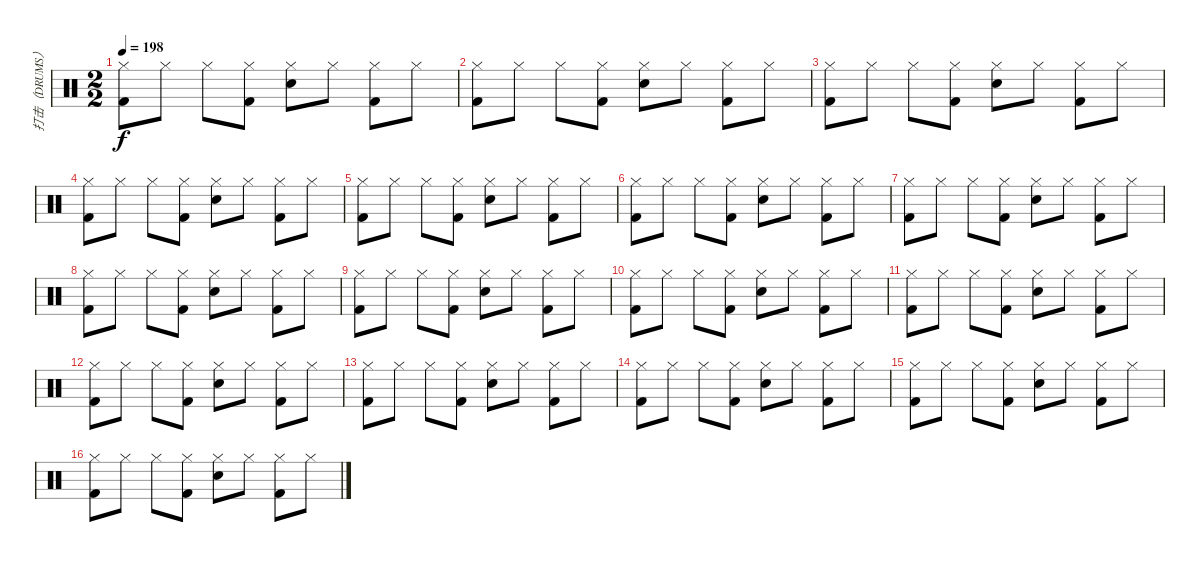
\track ("打击（DRUMS）" "打击（DRUMS）") {instrument percussion}
\staff {score}
\articulation defaults
\ts (2 2)
\tempo 198
\clef neutral
\ks c
("Kick (hit) 2" "Hi-Hat (closed)").8{dy f} "Hi-Hat (closed)".8 "Hi-Hat (closed)".8 ("Kick (hit) 2" "Hi-Hat (closed)").8 ("Electric Snare (hit)" "Hi-Hat (closed)").8 "Hi-Hat (closed)".8 ("Kick (hit) 2" "Hi-Hat (closed)").8 "Hi-Hat (closed)".8 |
("Kick (hit) 2" "Hi-Hat (closed)").8 "Hi-Hat (closed)".8 "Hi-Hat (closed)".8 ("Kick (hit) 2" "Hi-Hat (closed)").8 ("Electric Snare (hit)" "Hi-Hat (closed)").8 "Hi-Hat (closed)".8 ("Kick (hit) 2" "Hi-Hat (closed)").8 "Hi-Hat (closed)".8 |
("Kick (hit) 2" "Hi-Hat (closed)").8 "Hi-Hat (closed)".8 "Hi-Hat (closed)".8 ("Kick (hit) 2" "Hi-Hat (closed)").8 ("Electric Snare (hit)" "Hi-Hat (closed)").8 "Hi-Hat (closed)".8 ("Kick (hit) 2" "Hi-Hat (closed)").8 "Hi-Hat (closed)".8 |
("Kick (hit) 2" "Hi-Hat (closed)").8 "Hi-Hat (closed)".8 "Hi-Hat (closed)".8 ("Kick (hit) 2" "Hi-Hat (closed)").8 ("Electric Snare (hit)" "Hi-Hat (closed)").8 "Hi-Hat (closed)".8 ("Kick (hit) 2" "Hi-Hat (closed)").8 "Hi-Hat (closed)".8 |
("Kick (hit) 2" "Hi-Hat (closed)").8 "Hi-Hat (closed)".8 "Hi-Hat (closed)".8 ("Kick (hit) 2" "Hi-Hat (closed)").8 ("Electric Snare (hit)" "Hi-Hat (closed)").8 "Hi-Hat (closed)".8 ("Kick (hit) 2" "Hi-Hat (closed)").8 "Hi-Hat (closed)".8 |
("Kick (hit) 2" "Hi-Hat (closed)").8 "Hi-Hat (closed)".8 "Hi-Hat (closed)".8 ("Kick (hit) 2" "Hi-Hat (closed)").8 ("Electric Snare (hit)" "Hi-Hat (closed)").8 "Hi-Hat (closed)".8 ("Kick (hit) 2" "Hi-Hat (closed)").8 "Hi-Hat (closed)".8 |
("Kick (hit) 2" "Hi-Hat (closed)").8 "Hi-Hat (closed)".8 "Hi-Hat (closed)".8 ("Kick (hit) 2" "Hi-Hat (closed)").8 ("Electric Snare (hit)" "Hi-Hat (closed)").8 "Hi-Hat (closed)".8 ("Kick (hit) 2" "Hi-Hat (closed)").8 "Hi-Hat (closed)".8 |
("Kick (hit) 2" "Hi-Hat (closed)").8 "Hi-Hat (closed)".8 "Hi-Hat (closed)".8 ("Kick (hit) 2" "Hi-Hat (closed)").8 ("Electric Snare (hit)" "Hi-Hat (closed)").8 "Hi-Hat (closed)".8 ("Kick (hit) 2" "Hi-Hat (closed)").8 "Hi-Hat (closed)".8 |
("Kick (hit) 2" "Hi-Hat (closed)").8 "Hi-Hat (closed)".8 "Hi-Hat (closed)".8 ("Kick (hit) 2" "Hi-Hat (closed)").8 ("Electric Snare (hit)" "Hi-Hat (closed)").8 "Hi-Hat (closed)".8 ("Kick (hit) 2" "Hi-Hat (closed)").8 "Hi-Hat (closed)".8 |
("Kick (hit) 2" "Hi-Hat (closed)").8 "Hi-Hat (closed)".8 "Hi-Hat (closed)".8 ("Kick (hit) 2" "Hi-Hat (closed)").8 ("Electric Snare (hit)" "Hi-Hat (closed)").8 "Hi-Hat (closed)".8 ("Kick (hit) 2" "Hi-Hat (closed)").8 "Hi-Hat (closed)".8 |
("Kick (hit) 2" "Hi-Hat (closed)").8 "Hi-Hat (closed)".8 "Hi-Hat (closed)".8 ("Kick (hit) 2" "Hi-Hat (closed)").8 ("Electric Snare (hit)" "Hi-Hat (closed)").8 "Hi-Hat (closed)".8 ("Kick (hit) 2" "Hi-Hat (closed)").8 "Hi-Hat (closed)".8 |
("Kick (hit) 2" "Hi-Hat (closed)").8 "Hi-Hat (closed)".8 "Hi-Hat (closed)".8 ("Kick (hit) 2" "Hi-Hat (closed)").8 ("Electric Snare (hit)" "Hi-Hat (closed)").8 "Hi-Hat (closed)".8 ("Kick (hit) 2" "Hi-Hat (closed)").8 "Hi-Hat (closed)".8 |
("Kick (hit) 2" "Hi-Hat (closed)").8 "Hi-Hat (closed)".8 "Hi-Hat (closed)".8 ("Kick (hit) 2" "Hi-Hat (closed)").8 ("Electric Snare (hit)" "Hi-Hat (closed)").8 "Hi-Hat (closed)".8 ("Kick (hit) 2" "Hi-Hat (closed)").8 "Hi-Hat (closed)".8 |
("Kick (hit) 2" "Hi-Hat (closed)").8 "Hi-Hat (closed)".8 "Hi-Hat (closed)".8 ("Kick (hit) 2" "Hi-Hat (closed)").8 ("Electric Snare (hit)" "Hi-Hat (closed)").8 "Hi-Hat (closed)".8 ("Kick (hit) 2" "Hi-Hat (closed)").8 "Hi-Hat (closed)".8 |
("Kick (hit) 2" "Hi-Hat (closed)").8 "Hi-Hat (closed)".8 "Hi-Hat (closed)".8 ("Kick (hit) 2" "Hi-Hat (closed)").8 ("Electric Snare (hit)" "Hi-Hat (closed)").8 "Hi-Hat (closed)".8 ("Kick (hit) 2" "Hi-Hat (closed)").8 "Hi-Hat (closed)".8 |
("Kick (hit) 2" "Hi-Hat (closed)").8 "Hi-Hat (closed)".8 "Hi-Hat (closed)".8 ("Kick (hit) 2" "Hi-Hat (closed)").8 ("Electric Snare (hit)" "Hi-Hat (closed)").8 "Hi-Hat (closed)".8 ("Kick (hit) 2" "Hi-Hat (closed)").8 "Hi-Hat (closed)".8
